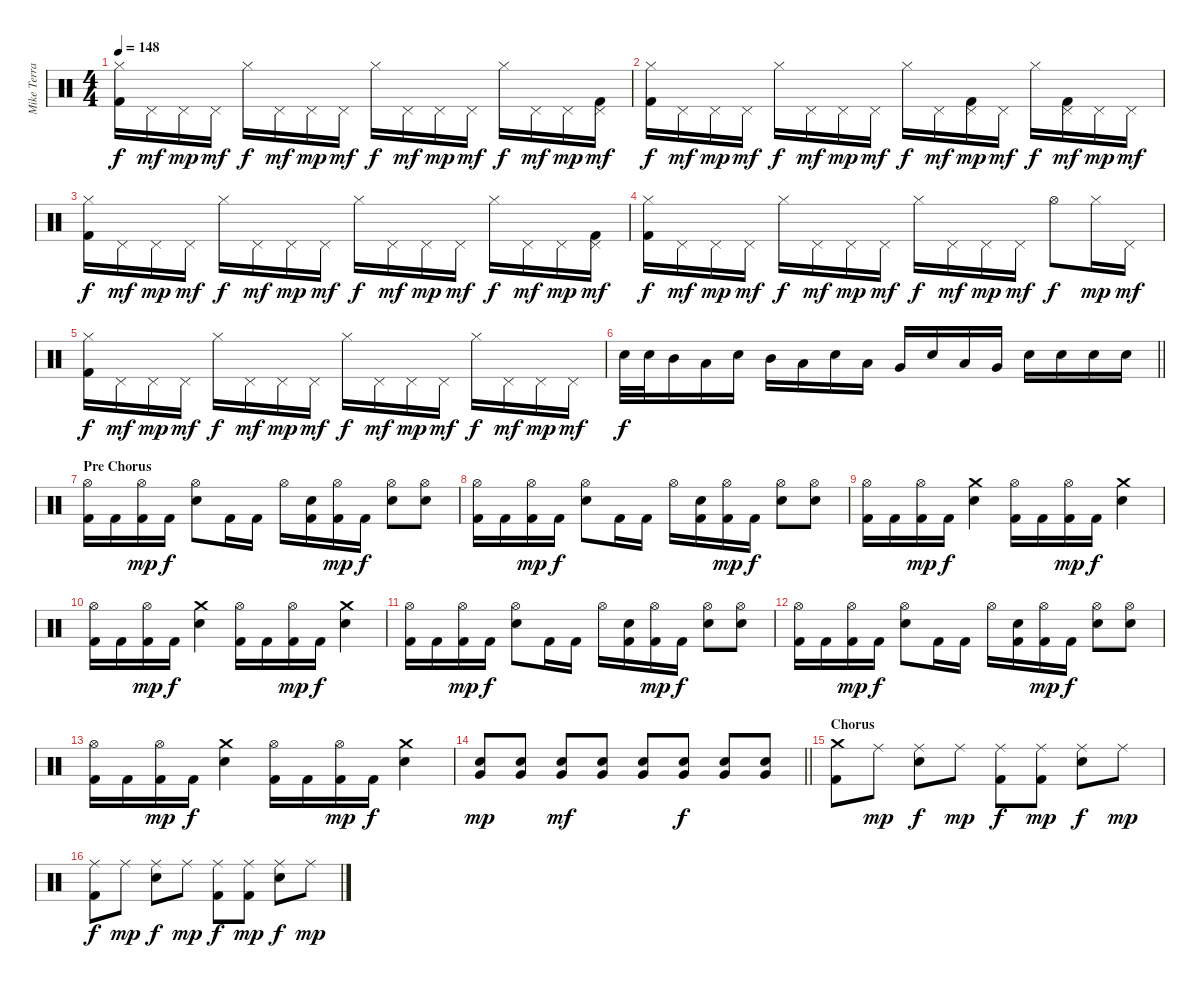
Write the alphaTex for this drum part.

\track ("Mike Terrana" "Mike Terra") {instrument percussion}
\staff {score}
\articulation defaults
\ts (4 4)
\tempo 148
\clef neutral
\ks c
("Hi-Hat (closed)" "Kick (hit) 2").16{dy f} "Pedal Hi-Hat (hit)".16{dy mf} "Pedal Hi-Hat (hit)".16{dy mp} "Pedal Hi-Hat (hit)".16{dy mf} "Hi-Hat (closed)".16{dy f} "Pedal Hi-Hat (hit)".16{dy mf} "Pedal Hi-Hat (hit)".16{dy mp} "Pedal Hi-Hat (hit)".16{dy mf} "Hi-Hat (closed)".16{dy f} "Pedal Hi-Hat (hit)".16{dy mf} "Pedal Hi-Hat (hit)".16{dy mp} "Pedal Hi-Hat (hit)".16{dy mf} "Hi-Hat (closed)".16{dy f} "Pedal Hi-Hat (hit)".16{dy mf} "Pedal Hi-Hat (hit)".16{dy mp} ("Pedal Hi-Hat (hit)" "Kick (hit) 2").16{dy mf} |
("Hi-Hat (closed)" "Kick (hit) 2").16{dy f} "Pedal Hi-Hat (hit)".16{dy mf} "Pedal Hi-Hat (hit)".16{dy mp} "Pedal Hi-Hat (hit)".16{dy mf} "Hi-Hat (closed)".16{dy f} "Pedal Hi-Hat (hit)".16{dy mf} "Pedal Hi-Hat (hit)".16{dy mp} "Pedal Hi-Hat (hit)".16{dy mf} "Hi-Hat (closed)".16{dy f} "Pedal Hi-Hat (hit)".16{dy mf} ("Pedal Hi-Hat (hit)" "Kick (hit) 2").16{dy mp} "Pedal Hi-Hat (hit)".16{dy mf} "Hi-Hat (closed)".16{dy f} ("Pedal Hi-Hat (hit)" "Kick (hit) 2").16{dy mf} "Pedal Hi-Hat (hit)".16{dy mp} "Pedal Hi-Hat (hit)".16{dy mf} |
("Hi-Hat (closed)" "Kick (hit) 2").16{dy f} "Pedal Hi-Hat (hit)".16{dy mf} "Pedal Hi-Hat (hit)".16{dy mp} "Pedal Hi-Hat (hit)".16{dy mf} "Hi-Hat (closed)".16{dy f} "Pedal Hi-Hat (hit)".16{dy mf} "Pedal Hi-Hat (hit)".16{dy mp} "Pedal Hi-Hat (hit)".16{dy mf} "Hi-Hat (closed)".16{dy f} "Pedal Hi-Hat (hit)".16{dy mf} "Pedal Hi-Hat (hit)".16{dy mp} "Pedal Hi-Hat (hit)".16{dy mf} "Hi-Hat (closed)".16{dy f} "Pedal Hi-Hat (hit)".16{dy mf} "Pedal Hi-Hat (hit)".16{dy mp} ("Pedal Hi-Hat (hit)" "Kick (hit) 2").16{dy mf} |
("Hi-Hat (closed)" "Kick (hit) 2").16{dy f} "Pedal Hi-Hat (hit)".16{dy mf} "Pedal Hi-Hat (hit)".16{dy mp} "Pedal Hi-Hat (hit)".16{dy mf} "Hi-Hat (closed)".16{dy f} "Pedal Hi-Hat (hit)".16{dy mf} "Pedal Hi-Hat (hit)".16{dy mp} "Pedal Hi-Hat (hit)".16{dy mf} "Hi-Hat (closed)".16{dy f} "Pedal Hi-Hat (hit)".16{dy mf} "Pedal Hi-Hat (hit)".16{dy mp} "Pedal Hi-Hat (hit)".16{dy mf} "Hi-Hat (open)".8{dy f} "Hi-Hat (closed)".16{dy mp} "Pedal Hi-Hat (hit)".16{dy mf} |
("Hi-Hat (closed)" "Kick (hit) 2").16{dy f} "Pedal Hi-Hat (hit)".16{dy mf} "Pedal Hi-Hat (hit)".16{dy mp} "Pedal Hi-Hat (hit)".16{dy mf} "Hi-Hat (closed)".16{dy f} "Pedal Hi-Hat (hit)".16{dy mf} "Pedal Hi-Hat (hit)".16{dy mp} "Pedal Hi-Hat (hit)".16{dy mf} "Hi-Hat (closed)".16{dy f} "Pedal Hi-Hat (hit)".16{dy mf} "Pedal Hi-Hat (hit)".16{dy mp} "Pedal Hi-Hat (hit)".16{dy mf} "Hi-Hat (closed)".16{dy f} "Pedal Hi-Hat (hit)".16{dy mf} "Pedal Hi-Hat (hit)".16{dy mp} "Pedal Hi-Hat (hit)".16{dy mf} |
\barLineRight lightlight "Snare (hit) 2".32{dy f} "Snare (hit) 2".32 "Mid Tom (hit)".16 "Low Tom (hit)".16 "Snare (hit) 2".16 "Mid Tom (hit)".16 "Low Tom (hit)".16 "Snare (hit) 2".16 "Low Tom (hit)".16 "Very Low Tom (hit)".16 "Snare (hit) 2".16 "Low Tom (hit)".16 "Very Low Tom (hit)".16 "Snare (hit) 2".16 "Snare (hit) 2".16 "Snare (hit) 2".16 "Snare (hit) 2".16
|
\section ("" "Pre Chorus")
("Hi-Hat (open)" "Kick (hit) 2").16 "Kick (hit) 2".16 ("Hi-Hat (open)" "Kick (hit) 2").16{dy mp} "Kick (hit) 2".16{dy f} ("Hi-Hat (open)" "Snare (hit) 2").8 "Kick (hit) 2".16 "Kick (hit) 2".16 "Hi-Hat (open)".16 ("Snare (hit) 2" "Kick (hit) 2").16 ("Hi-Hat (open)" "Kick (hit) 2").16{dy mp} "Kick (hit) 2".16{dy f} ("Hi-Hat (open)" "Snare (hit) 2").8 ("Hi-Hat (open)" "Snare (hit) 2").8 |
("Hi-Hat (open)" "Kick (hit) 2").16 "Kick (hit) 2".16 ("Hi-Hat (open)" "Kick (hit) 2").16{dy mp} "Kick (hit) 2".16{dy f} ("Hi-Hat (open)" "Snare (hit) 2").8 "Kick (hit) 2".16 "Kick (hit) 2".16 "Hi-Hat (open)".16 ("Snare (hit) 2" "Kick (hit) 2").16 ("Hi-Hat (open)" "Kick (hit) 2").16{dy mp} "Kick (hit) 2".16{dy f} ("Hi-Hat (open)" "Snare (hit) 2").8 ("Hi-Hat (open)" "Snare (hit) 2").8 |
("Hi-Hat (open)" "Kick (hit) 2").16 "Kick (hit) 2".16 ("Hi-Hat (open)" "Kick (hit) 2").16{dy mp} "Kick (hit) 2".16{dy f} ("Crash medium (hit)" "Snare (hit) 2").4 ("Hi-Hat (open)" "Kick (hit) 2").16 "Kick (hit) 2".16 ("Hi-Hat (open)" "Kick (hit) 2").16{dy mp} "Kick (hit) 2".16{dy f} ("Crash medium (hit)" "Snare (hit) 2").4 |
("Hi-Hat (open)" "Kick (hit) 2").16 "Kick (hit) 2".16 ("Hi-Hat (open)" "Kick (hit) 2").16{dy mp} "Kick (hit) 2".16{dy f} ("Crash medium (hit)" "Snare (hit) 2").4 ("Hi-Hat (open)" "Kick (hit) 2").16 "Kick (hit) 2".16 ("Hi-Hat (open)" "Kick (hit) 2").16{dy mp} "Kick (hit) 2".16{dy f} ("Crash medium (hit)" "Snare (hit) 2").4 |
("Hi-Hat (open)" "Kick (hit) 2").16 "Kick (hit) 2".16 ("Hi-Hat (open)" "Kick (hit) 2").16{dy mp} "Kick (hit) 2".16{dy f} ("Hi-Hat (open)" "Snare (hit) 2").8 "Kick (hit) 2".16 "Kick (hit) 2".16 "Hi-Hat (open)".16 ("Snare (hit) 2" "Kick (hit) 2").16 ("Hi-Hat (open)" "Kick (hit) 2").16{dy mp} "Kick (hit) 2".16{dy f} ("Hi-Hat (open)" "Snare (hit) 2").8 ("Hi-Hat (open)" "Snare (hit) 2").8 |
("Hi-Hat (open)" "Kick (hit) 2").16 "Kick (hit) 2".16 ("Hi-Hat (open)" "Kick (hit) 2").16{dy mp} "Kick (hit) 2".16{dy f} ("Hi-Hat (open)" "Snare (hit) 2").8 "Kick (hit) 2".16 "Kick (hit) 2".16 "Hi-Hat (open)".16 ("Snare (hit) 2" "Kick (hit) 2").16 ("Hi-Hat (open)" "Kick (hit) 2").16{dy mp} "Kick (hit) 2".16{dy f} ("Hi-Hat (open)" "Snare (hit) 2").8 ("Hi-Hat (open)" "Snare (hit) 2").8 |
("Hi-Hat (open)" "Kick (hit) 2").16 "Kick (hit) 2".16 ("Hi-Hat (open)" "Kick (hit) 2").16{dy mp} "Kick (hit) 2".16{dy f} ("Crash medium (hit)" "Snare (hit) 2").4 ("Hi-Hat (open)" "Kick (hit) 2").16 "Kick (hit) 2".16 ("Hi-Hat (open)" "Kick (hit) 2").16{dy mp} "Kick (hit) 2".16{dy f} ("Crash medium (hit)" "Snare (hit) 2").4 |
\barLineRight lightlight
("Snare (hit) 2" "Very Low Tom (hit)").8{dy mp} ("Snare (hit) 2" "Very Low Tom (hit)").8 ("Snare (hit) 2" "Very Low Tom (hit)").8{dy mf} ("Snare (hit) 2" "Very Low Tom (hit)").8 ("Snare (hit) 2" "Very Low Tom (hit)").8 ("Snare (hit) 2" "Very Low Tom (hit)").8{dy f} ("Snare (hit) 2" "Very Low Tom (hit)").8 ("Snare (hit) 2" "Very Low Tom (hit)").8 |
\section ("" "Chorus")
("Crash medium (hit)" "Kick (hit) 2").8 "Ride (middle)".8{dy mp} ("Ride (middle)" "Snare (hit) 2").8{dy f} "Ride (middle)".8{dy mp} ("Ride (middle)" "Kick (hit) 2").8{dy f} ("Ride (middle)" "Kick (hit) 2").8{dy mp} ("Ride (middle)" "Snare (hit) 2").8{dy f} "Ride (middle)".8{dy mp} |
("Ride (middle)" "Kick (hit) 2").8{dy f} "Ride (middle)".8{dy mp} ("Ride (middle)" "Snare (hit) 2").8{dy f} "Ride (middle)".8{dy mp} ("Ride (middle)" "Kick (hit) 2").8{dy f} ("Ride (middle)" "Kick (hit) 2").8{dy mp} ("Ride (middle)" "Snare (hit) 2").8{dy f} "Ride (middle)".8{dy mp}
